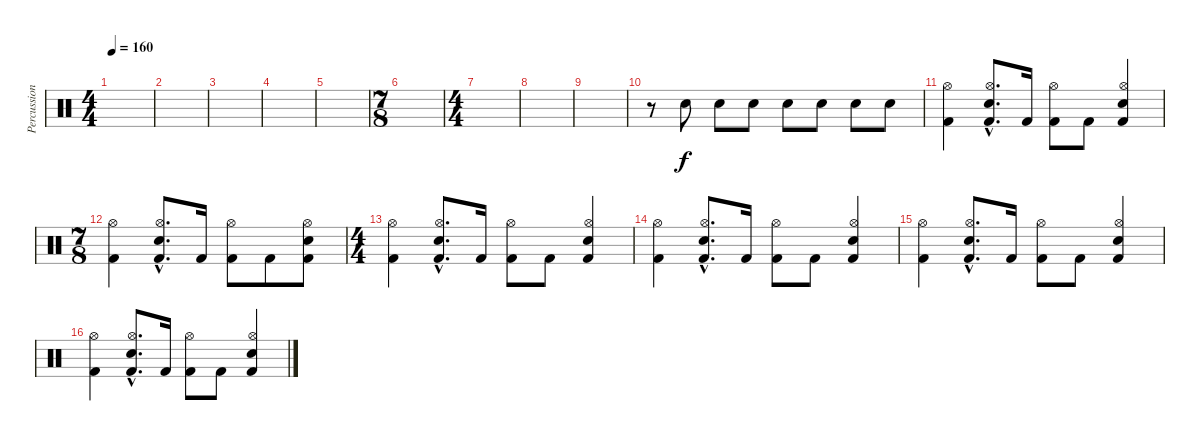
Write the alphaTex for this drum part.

\track ("Percussion" "Percussion") {instrument percussion}
\staff {score}
\articulation defaults
\ts (4 4)
\tempo 160
\clef neutral
\ks c
|
|
|
|
|
\ts (7 8)
|
\ts (4 4)
|
|
|
r.8 "Electric Snare (hit)".8 "Electric Snare (hit)".8 "Electric Snare (hit)".8 "Electric Snare (hit)".8 "Electric Snare (hit)".8 "Electric Snare (hit)".8 "Electric Snare (hit)".8 |
("Hi-Hat (open)" "Kick (hit) 2").4 ("Hi-Hat (open)"{hac} "Electric Snare (hit)"{hac} "Kick (hit) 2"{hac}).8{d} "Kick (hit) 2".16 ("Hi-Hat (open)" "Kick (hit) 2").8 "Kick (hit) 2".8 ("Hi-Hat (open)" "Electric Snare (hit)" "Kick (hit) 2").4 |
\ts (7 8)
("Hi-Hat (open)" "Kick (hit) 2").4 ("Hi-Hat (open)"{hac} "Electric Snare (hit)"{hac} "Kick (hit) 2"{hac}).8{d} "Kick (hit) 2".16 ("Hi-Hat (open)" "Kick (hit) 2").8 "Kick (hit) 2".8 ("Hi-Hat (open)" "Electric Snare (hit)" "Kick (hit) 2").8 |
\ts (4 4)
("Hi-Hat (open)" "Kick (hit) 2").4 ("Hi-Hat (open)"{hac} "Electric Snare (hit)"{hac} "Kick (hit) 2"{hac}).8{d} "Kick (hit) 2".16 ("Hi-Hat (open)" "Kick (hit) 2").8 "Kick (hit) 2".8 ("Hi-Hat (open)" "Electric Snare (hit)" "Kick (hit) 2").4 |
("Hi-Hat (open)" "Kick (hit) 2").4 ("Hi-Hat (open)"{hac} "Electric Snare (hit)"{hac} "Kick (hit) 2"{hac}).8{d} "Kick (hit) 2".16 ("Hi-Hat (open)" "Kick (hit) 2").8 "Kick (hit) 2".8 ("Hi-Hat (open)" "Electric Snare (hit)" "Kick (hit) 2").4 |
("Hi-Hat (open)" "Kick (hit) 2").4 ("Hi-Hat (open)"{hac} "Electric Snare (hit)"{hac} "Kick (hit) 2"{hac}).8{d} "Kick (hit) 2".16 ("Hi-Hat (open)" "Kick (hit) 2").8 "Kick (hit) 2".8 ("Hi-Hat (open)" "Electric Snare (hit)" "Kick (hit) 2").4 |
("Hi-Hat (open)" "Kick (hit) 2").4 ("Hi-Hat (open)"{hac} "Electric Snare (hit)"{hac} "Kick (hit) 2"{hac}).8{d} "Kick (hit) 2".16 ("Hi-Hat (open)" "Kick (hit) 2").8 "Kick (hit) 2".8 ("Hi-Hat (open)" "Electric Snare (hit)" "Kick (hit) 2").4
